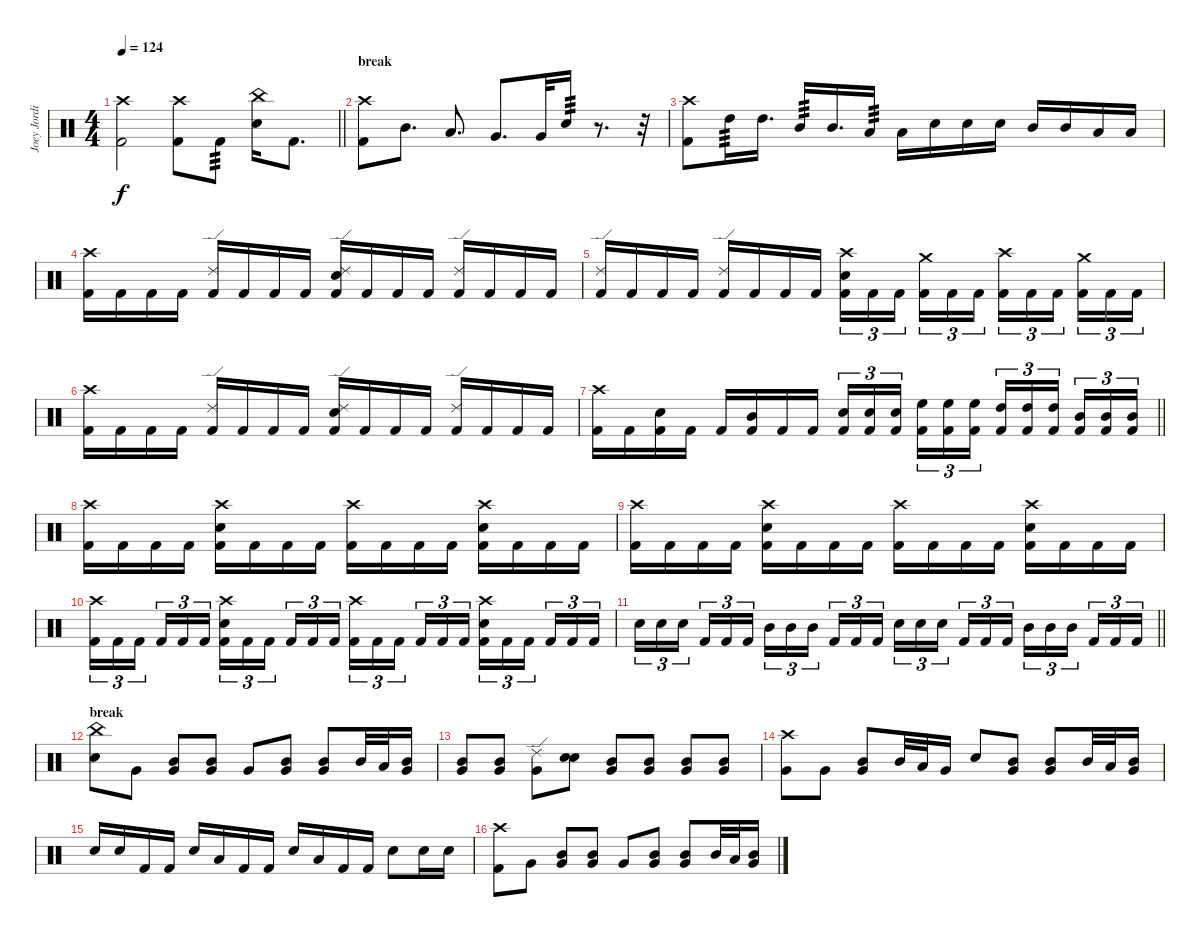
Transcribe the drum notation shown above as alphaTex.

\track ("Joey Jordison" "Joey Jordi") {instrument percussion}
\staff
\articulation defaults
\ts (4 4)
\tempo 124
\clef neutral
\barLineRight lightlight
\ks c
("Crash high (hit)" "Kick (hit) 2").2{dy f} ("Crash high (hit)" "Kick (hit) 2").8 "Kick (hit) 2".8{tp 3} ("Electric Snare (hit)" "China (hit)").16 "Kick (hit) 2".8{d} |
\section ("" "break")
("Crash high (hit)" "Kick (hit) 2").8 "Mid Tom (hit)".8{d} "Low Tom (hit)".8{d} "Very Low Tom (hit)".8{d} "Very Low Tom (hit)".32 "Electric Snare (hit)".16{tp 3} r.8{d} r.32 |
("Crash high (hit)" "Kick (hit) 2").8 "High Tom (hit)".16{tp 3} "High Tom (hit)".16{d} "Mid Tom (hit)".16{tp 3} "Mid Tom (hit)".16{d} "Low Tom (hit)".16{tp 3} "Low Tom (hit)".16 "Electric Snare (hit)".16 "Electric Snare (hit)".16 "Electric Snare (hit)".16 "Mid Tom (hit)".16 "Mid Tom (hit)".16 "Low Tom (hit)".16 "Low Tom (hit)".16 |
("Crash high (hit)" "Kick (hit) 2").16 "Kick (hit) 2".16 "Kick (hit) 2".16 "Kick (hit) 2".16 ("Ride (edge) 2" "Kick (hit) 2").16 "Kick (hit) 2".16 "Kick (hit) 2".16 "Kick (hit) 2".16 ("Ride (edge) 2" "Electric Snare (hit)" "Kick (hit) 2").16 "Kick (hit) 2".16 "Kick (hit) 2".16 "Kick (hit) 2".16 ("Ride (edge) 2" "Kick (hit) 2").16 "Kick (hit) 2".16 "Kick (hit) 2".16 "Kick (hit) 2".16 |
("Ride (edge) 2" "Kick (hit) 2").16 "Kick (hit) 2".16 "Kick (hit) 2".16 "Kick (hit) 2".16 ("Ride (edge) 2" "Kick (hit) 2").16 "Kick (hit) 2".16 "Kick (hit) 2".16 "Kick (hit) 2".16 ("Crash high (hit)" "Electric Snare (hit)" "Kick (hit) 2").16{tu (3 2)} "Kick (hit) 2".16{tu (3 2)} "Kick (hit) 2".16{tu (3 2) beam splitsecondary} ("Crash medium (hit)" "Kick (hit) 2").16{tu (3 2)} "Kick (hit) 2".16{tu (3 2)} "Kick (hit) 2".16{tu (3 2)} ("Crash high (hit)" "Kick (hit) 2").16{tu (3 2)} "Kick (hit) 2".16{tu (3 2)} "Kick (hit) 2".16{tu (3 2) beam splitsecondary} ("Crash medium (hit)" "Kick (hit) 2").16{tu (3 2)} "Kick (hit) 2".16{tu (3 2)} "Kick (hit) 2".16{tu (3 2)} |
("Crash high (hit)" "Kick (hit) 2").16 "Kick (hit) 2".16 "Kick (hit) 2".16 "Kick (hit) 2".16 ("Ride (edge) 2" "Kick (hit) 2").16 "Kick (hit) 2".16 "Kick (hit) 2".16 "Kick (hit) 2".16 ("Ride (edge) 2" "Electric Snare (hit)" "Kick (hit) 2").16 "Kick (hit) 2".16 "Kick (hit) 2".16 "Kick (hit) 2".16 ("Ride (edge) 2" "Kick (hit) 2").16 "Kick (hit) 2".16 "Kick (hit) 2".16 "Kick (hit) 2".16 |
\barLineRight lightlight
("Crash high (hit)" "Kick (hit) 2").16 "Kick (hit) 2".16 ("Electric Snare (hit)" "Kick (hit) 2").16 "Kick (hit) 2".16 "Kick (hit) 2".16 ("Mid Tom (hit)" "Kick (hit) 2").16 "Kick (hit) 2".16 "Kick (hit) 2".16 ("Electric Snare (hit)" "Kick (hit) 2").16{tu (3 2)} ("Electric Snare (hit)" "Kick (hit) 2").16{tu (3 2)} ("Electric Snare (hit)" "Kick (hit) 2").16{tu (3 2) beam splitsecondary} ("High Floor Tom (hit)" "Kick (hit) 2").16{tu (3 2)} ("High Floor Tom (hit)" "Kick (hit) 2").16{tu (3 2)} ("High Floor Tom (hit)" "Kick (hit) 2").16{tu (3 2)} ("High Tom (hit)" "Kick (hit) 2").16{tu (3 2)} ("High Tom (hit)" "Kick (hit) 2").16{tu (3 2)} ("High Tom (hit)" "Kick (hit) 2").16{tu (3 2) beam splitsecondary} ("Mid Tom (hit)" "Kick (hit) 2").16{tu (3 2)} ("Mid Tom (hit)" "Kick (hit) 2").16{tu (3 2)} ("Mid Tom (hit)" "Kick (hit) 2").16{tu (3 2)} |
\section ("" "")
("Crash high (hit)" "Kick (hit) 2").16 "Kick (hit) 2".16 "Kick (hit) 2".16 "Kick (hit) 2".16 ("Crash high (hit)" "Electric Snare (hit)" "Kick (hit) 2").16 "Kick (hit) 2".16 "Kick (hit) 2".16 "Kick (hit) 2".16 ("Crash high (hit)" "Kick (hit) 2").16 "Kick (hit) 2".16 "Kick (hit) 2".16 "Kick (hit) 2".16 ("Crash high (hit)" "Electric Snare (hit)" "Kick (hit) 2").16 "Kick (hit) 2".16 "Kick (hit) 2".16 "Kick (hit) 2".16 |
("Crash high (hit)" "Kick (hit) 2").16 "Kick (hit) 2".16 "Kick (hit) 2".16 "Kick (hit) 2".16 ("Crash high (hit)" "Electric Snare (hit)" "Kick (hit) 2").16 "Kick (hit) 2".16 "Kick (hit) 2".16 "Kick (hit) 2".16 ("Crash high (hit)" "Kick (hit) 2").16 "Kick (hit) 2".16 "Kick (hit) 2".16 "Kick (hit) 2".16 ("Crash high (hit)" "Electric Snare (hit)" "Kick (hit) 2").16 "Kick (hit) 2".16 "Kick (hit) 2".16 "Kick (hit) 2".16 |
("Crash high (hit)" "Kick (hit) 2").16{tu (3 2)} "Kick (hit) 2".16{tu (3 2)} "Kick (hit) 2".16{tu (3 2) beam splitsecondary} "Kick (hit) 2".16{tu (3 2)} "Kick (hit) 2".16{tu (3 2)} "Kick (hit) 2".16{tu (3 2)} ("Crash high (hit)" "Electric Snare (hit)" "Kick (hit) 2").16{tu (3 2)} "Kick (hit) 2".16{tu (3 2)} "Kick (hit) 2".16{tu (3 2) beam splitsecondary} "Kick (hit) 2".16{tu (3 2)} "Kick (hit) 2".16{tu (3 2)} "Kick (hit) 2".16{tu (3 2)} ("Crash high (hit)" "Kick (hit) 2").16{tu (3 2)} "Kick (hit) 2".16{tu (3 2)} "Kick (hit) 2".16{tu (3 2) beam splitsecondary} "Kick (hit) 2".16{tu (3 2)} "Kick (hit) 2".16{tu (3 2)} "Kick (hit) 2".16{tu (3 2)} ("Crash high (hit)" "Electric Snare (hit)" "Kick (hit) 2").16{tu (3 2)} "Kick (hit) 2".16{tu (3 2)} "Kick (hit) 2".16{tu (3 2) beam splitsecondary} "Kick (hit) 2".16{tu (3 2)} "Kick (hit) 2".16{tu (3 2)} "Kick (hit) 2".16{tu (3 2)} |
\barLineRight lightlight "Electric Snare (hit)".16{tu (3 2)} "Electric Snare (hit)".16{tu (3 2)} "Electric Snare (hit)".16{tu (3 2) beam splitsecondary} "Kick (hit) 2".16{tu (3 2)} "Kick (hit) 2".16{tu (3 2)} "Kick (hit) 2".16{tu (3 2)} "Mid Tom (hit)".16{tu (3 2)} "Mid Tom (hit)".16{tu (3 2)} "Mid Tom (hit)".16{tu (3 2) beam splitsecondary} "Kick (hit) 2".16{tu (3 2)} "Kick (hit) 2".16{tu (3 2)} "Kick (hit) 2".16{tu (3 2)} "Electric Snare (hit)".16{tu (3 2)} "Electric Snare (hit)".16{tu (3 2)} "Electric Snare (hit)".16{tu (3 2) beam splitsecondary} "Kick (hit) 2".16{tu (3 2)} "Kick (hit) 2".16{tu (3 2)} "Kick (hit) 2".16{tu (3 2)} "Mid Tom (hit)".16{tu (3 2)} "Mid Tom (hit)".16{tu (3 2)} "Mid Tom (hit)".16{tu (3 2) beam splitsecondary} "Kick (hit) 2".16{tu (3 2)} "Kick (hit) 2".16{tu (3 2)} "Kick (hit) 2".16{tu (3 2)}
|
\section ("" "break")
("China (hit)" "Electric Snare (hit)").8 "Very Low Tom (hit)".8 ("Mid Tom (hit)" "Very Low Tom (hit)").8 ("Mid Tom (hit)" "Very Low Tom (hit)").8 "Very Low Tom (hit)".8 ("Mid Tom (hit)" "Very Low Tom (hit)").8 ("Mid Tom (hit)" "Very Low Tom (hit)").8 "Mid Tom (hit)".32 "Low Tom (hit)".32 ("Mid Tom (hit)" "Very Low Tom (hit)").16 |
("Mid Tom (hit)" "Very Low Tom (hit)").8 ("Mid Tom (hit)" "Very Low Tom (hit)").8 ("Ride (edge) 2" "Very Low Tom (hit)").8 ("Electric Snare (hit)" "Electric Snare (hit)").8 ("Mid Tom (hit)" "Very Low Tom (hit)").8 ("Mid Tom (hit)" "Very Low Tom (hit)").8 ("Mid Tom (hit)" "Very Low Tom (hit)").8 ("Mid Tom (hit)" "Very Low Tom (hit)").8 |
("Crash high (hit)" "Very Low Tom (hit)").8 "Very Low Tom (hit)".8 ("Mid Tom (hit)" "Very Low Tom (hit)").8 "Mid Tom (hit)".32 "Low Tom (hit)".32 "Very Low Tom (hit)".16 "Electric Snare (hit)".8 ("Mid Tom (hit)" "Very Low Tom (hit)").8 ("Mid Tom (hit)" "Very Low Tom (hit)").8 "Mid Tom (hit)".32 "Low Tom (hit)".32 ("Mid Tom (hit)" "Very Low Tom (hit)").16 |
"Electric Snare (hit)".16 "Electric Snare (hit)".16 "Kick (hit) 2".16 "Kick (hit) 2".16 "Electric Snare (hit)".16 "Low Tom (hit)".16 "Kick (hit) 2".16 "Kick (hit) 2".16 "Electric Snare (hit)".16 "Low Tom (hit)".16 "Kick (hit) 2".16 "Kick (hit) 2".16 "Electric Snare (hit)".8 "Electric Snare (hit)".16 "Electric Snare (hit)".16 |
("Crash high (hit)" "Kick (hit) 2").8 "Very Low Tom (hit)".8 ("Mid Tom (hit)" "Very Low Tom (hit)").8 ("Mid Tom (hit)" "Very Low Tom (hit)").8 "Very Low Tom (hit)".8 ("Mid Tom (hit)" "Very Low Tom (hit)").8 ("Mid Tom (hit)" "Very Low Tom (hit)").8 "Mid Tom (hit)".32 "Low Tom (hit)".32 ("Mid Tom (hit)" "Very Low Tom (hit)").16
